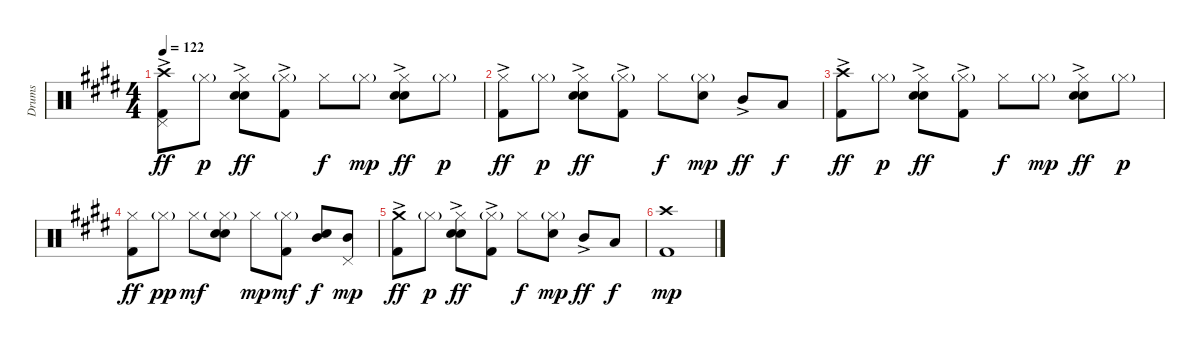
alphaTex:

\track ("Drums" "Drums") {instrument percussion}
\staff {score}
\articulation defaults
\ts (4 4)
\tempo 122
\clef neutral
\ks e
("Pedal Hi-Hat (hit)" "Crash high (hit)" "Kick (hit) 2"{ac}).8{dy ff} "Hi-Hat (closed)"{g}.8{dy p} ("Hi-Hat (closed)" "Electric Snare (hit)"{ac} "Snare (hit) 2").8{dy ff} ("Hi-Hat (closed)"{g} "Kick (hit) 2"{ac}).8 "Hi-Hat (closed)".8{dy f} "Hi-Hat (closed)"{g}.8{dy mp} ("Hi-Hat (closed)" "Electric Snare (hit)"{ac} "Snare (hit) 2").8{dy ff} "Hi-Hat (closed)"{g}.8{dy p} |
("Hi-Hat (closed)" "Kick (hit) 2"{ac}).8{dy ff} "Hi-Hat (closed)"{g}.8{dy p} ("Hi-Hat (closed)" "Electric Snare (hit)"{ac} "Snare (hit) 2").8{dy ff} ("Hi-Hat (closed)"{g} "Kick (hit) 2"{ac}).8 "Hi-Hat (closed)".8{dy f} ("Hi-Hat (closed)"{g} "Electric Snare (hit)").8{dy mp} "Mid Tom (hit)"{ac}.8{dy ff} "Low Tom (hit)".8{dy f} |
("Crash high (hit)" "Kick (hit) 2"{ac}).8{dy ff} "Hi-Hat (closed)"{g}.8{dy p} ("Hi-Hat (closed)" "Electric Snare (hit)"{ac} "Snare (hit) 2").8{dy ff} ("Hi-Hat (closed)"{g} "Kick (hit) 2"{ac}).8 "Hi-Hat (closed)".8{dy f} "Hi-Hat (closed)"{g}.8{dy mp} ("Hi-Hat (closed)" "Electric Snare (hit)"{ac} "Snare (hit) 2").8{dy ff} "Hi-Hat (closed)"{g}.8{dy p} |
("Hi-Hat (closed)" "Kick (hit) 2").8{dy ff} "Hi-Hat (closed)"{g}.8{dy pp} "Hi-Hat (closed)".8{dy mf} ("Hi-Hat (closed)"{g} "Electric Snare (hit)" "Snare (hit) 2").8 "Hi-Hat (closed)".8{dy mp} ("Hi-Hat (closed)"{g} "Kick (hit) 2").8{dy mf} ("Electric Snare (hit)" "Mid Tom (hit)").8{dy f} ("Pedal Hi-Hat (hit)" "Mid Tom (hit)").8{dy mp} |
("Crash medium (hit)" "Kick (hit) 2"{ac}).8{dy ff} "Hi-Hat (closed)"{g}.8{dy p} ("Hi-Hat (closed)" "Electric Snare (hit)"{ac} "Snare (hit) 2").8{dy ff} ("Hi-Hat (closed)"{g} "Kick (hit) 2"{ac}).8 "Hi-Hat (closed)".8{dy f} ("Hi-Hat (closed)"{g} "Electric Snare (hit)").8{dy mp} "Mid Tom (hit)"{ac}.8{dy ff} "Low Tom (hit)".8{dy f} |
("Crash high (hit)" "Kick (hit) 2").1{dy mp}
